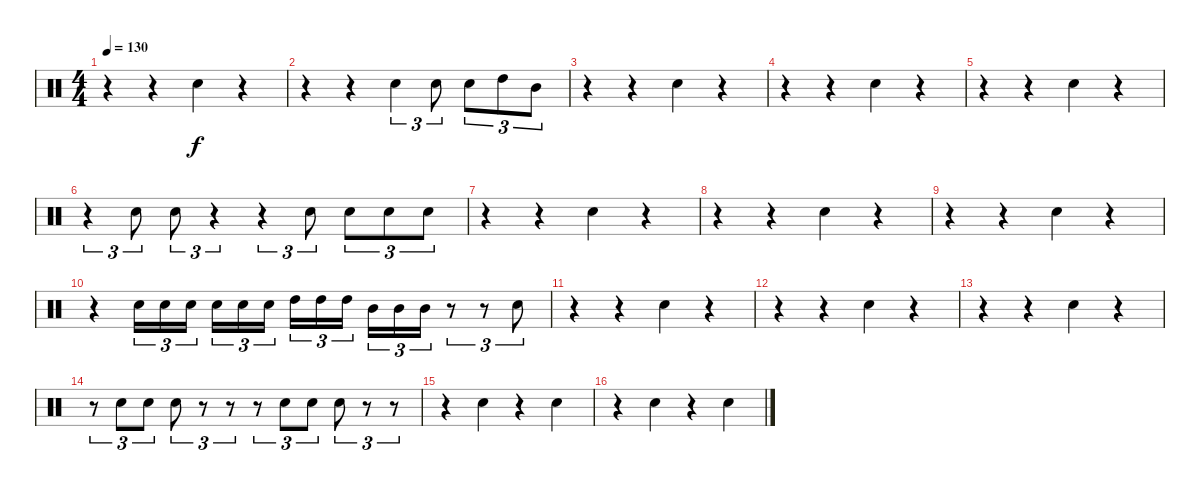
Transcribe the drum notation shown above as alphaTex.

\track "" {instrument percussion}
\staff {score}
\articulation defaults
\ts (4 4)
\tempo 130
\clef neutral
\ks c
r.4{dy f} r.4 "Electric Snare (hit)".4 r.4 |
r.4 r.4 "Electric Snare (hit)".4{tu (3 2)} "Electric Snare (hit)".8{tu (3 2)} "Electric Snare (hit)".8{tu (3 2)} "High Tom (hit)".8{tu (3 2)} "Mid Tom (hit)".8{tu (3 2)} |
r.4 r.4 "Electric Snare (hit)".4 r.4 |
r.4 r.4 "Electric Snare (hit)".4 r.4 |
r.4 r.4 "Electric Snare (hit)".4 r.4 |
r.4{tu (3 2)} "Electric Snare (hit)".8{tu (3 2)} "Electric Snare (hit)".8{tu (3 2)} r.4{tu (3 2)} r.4{tu (3 2)} "Electric Snare (hit)".8{tu (3 2)} "Electric Snare (hit)".8{tu (3 2)} "Electric Snare (hit)".8{tu (3 2)} "Electric Snare (hit)".8{tu (3 2)} |
r.4 r.4 "Electric Snare (hit)".4 r.4 |
r.4 r.4 "Electric Snare (hit)".4 r.4 |
r.4 r.4 "Electric Snare (hit)".4 r.4 |
r.4 "Electric Snare (hit)".16{tu (3 2)} "Electric Snare (hit)".16{tu (3 2)} "Electric Snare (hit)".16{tu (3 2)} "Electric Snare (hit)".16{tu (3 2)} "Electric Snare (hit)".16{tu (3 2)} "Electric Snare (hit)".16{tu (3 2)} "High Tom (hit)".16{tu (3 2)} "High Tom (hit)".16{tu (3 2)} "High Tom (hit)".16{tu (3 2)} "Mid Tom (hit)".16{tu (3 2)} "Mid Tom (hit)".16{tu (3 2)} "Mid Tom (hit)".16{tu (3 2)} r.8{tu (3 2)} r.8{tu (3 2)} "Electric Snare (hit)".8{tu (3 2)} |
r.4 r.4 "Electric Snare (hit)".4 r.4 |
r.4 r.4 "Electric Snare (hit)".4 r.4 |
r.4 r.4 "Electric Snare (hit)".4 r.4 |
r.8{tu (3 2)} "Electric Snare (hit)".8{tu (3 2)} "Electric Snare (hit)".8{tu (3 2)} "Electric Snare (hit)".8{tu (3 2)} r.8{tu (3 2)} r.8{tu (3 2)} r.8{tu (3 2)} "Electric Snare (hit)".8{tu (3 2)} "Electric Snare (hit)".8{tu (3 2)} "Electric Snare (hit)".8{tu (3 2)} r.8{tu (3 2)} r.8{tu (3 2)} |
r.4 "Electric Snare (hit)".4 r.4 "Electric Snare (hit)".4 |
r.4 "Electric Snare (hit)".4 r.4 "Electric Snare (hit)".4
